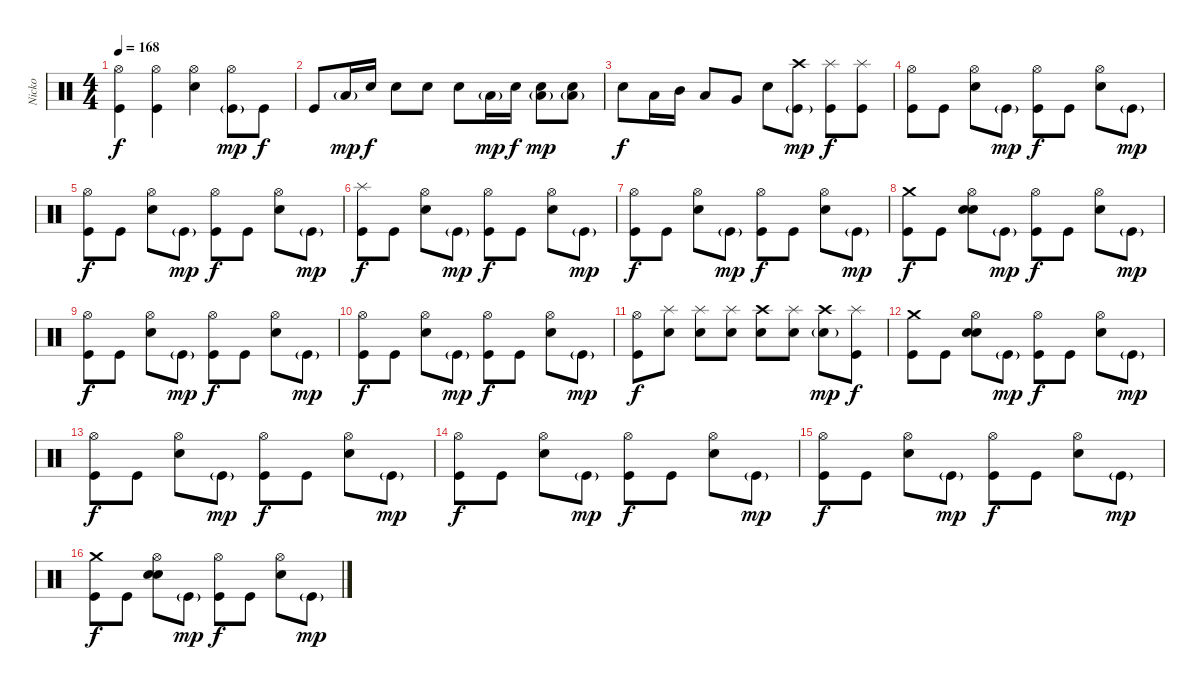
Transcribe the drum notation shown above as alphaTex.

\track ("Nicko" "Nicko") {instrument percussion}
\staff {score}
\articulation defaults
\ts (4 4)
\tempo 168
\clef neutral
\ks c
("Kick (hit)" "Hi-Hat (open)").4{dy f} ("Kick (hit)" "Hi-Hat (open)").4 ("Electric Snare (hit)" "Hi-Hat (open)").4 ("Kick (hit)"{g} "Hi-Hat (open)").8{dy mp} "Kick (hit)".8{dy f} |
"Kick (hit)".8 "Low Tom (hit)"{g}.16{dy mp} "Electric Snare (hit)".16{dy f} "Electric Snare (hit)".8 "Electric Snare (hit)".8 "Electric Snare (hit)".8 "Low Tom (hit)"{g}.16{dy mp} "Electric Snare (hit)".16{dy f} ("Low Tom (hit)"{g} "Electric Snare (hit)").8{dy mp} ("Low Tom (hit)"{g} "Electric Snare (hit)").8 |
"Electric Snare (hit)".8{dy f} "Low Tom (hit)".16 "Mid Tom (hit)".16 "Low Tom (hit)".8 "Very Low Tom (hit)".8 "Electric Snare (hit)".8 ("Kick (hit)"{g} "Crash high (hit)").8{dy mp} ("Kick (hit)" "Splash (hit)").8{dy f} ("Kick (hit)" "Splash (hit)").8 |
("Kick (hit)" "Hi-Hat (open)").8 "Kick (hit)".8 ("Electric Snare (hit)" "Hi-Hat (open)").8 "Kick (hit)"{g}.8{dy mp} ("Kick (hit)" "Hi-Hat (open)").8{dy f} "Kick (hit)".8 ("Electric Snare (hit)" "Hi-Hat (open)").8 "Kick (hit)"{g}.8{dy mp} |
("Kick (hit)" "Hi-Hat (open)").8{dy f} "Kick (hit)".8 ("Electric Snare (hit)" "Hi-Hat (open)").8 "Kick (hit)"{g}.8{dy mp} ("Kick (hit)" "Hi-Hat (open)").8{dy f} "Kick (hit)".8 ("Electric Snare (hit)" "Hi-Hat (open)").8 "Kick (hit)"{g}.8{dy mp} |
("Kick (hit)" "Splash (hit)").8{dy f} "Kick (hit)".8 ("Electric Snare (hit)" "Hi-Hat (open)").8 "Kick (hit)"{g}.8{dy mp} ("Kick (hit)" "Hi-Hat (open)").8{dy f} "Kick (hit)".8 ("Electric Snare (hit)" "Hi-Hat (open)").8 "Kick (hit)"{g}.8{dy mp} |
("Kick (hit)" "Hi-Hat (open)").8{dy f} "Kick (hit)".8 ("Electric Snare (hit)" "Hi-Hat (open)").8 "Kick (hit)"{g}.8{dy mp} ("Kick (hit)" "Hi-Hat (open)").8{dy f} "Kick (hit)".8 ("Electric Snare (hit)" "Hi-Hat (open)").8 "Kick (hit)"{g}.8{dy mp} |
("Kick (hit)" "Crash medium (hit)").8{dy f} "Kick (hit)".8 ("Electric Snare (hit)" "Hi-Hat (open)" "Snare (hit)").8 "Kick (hit)"{g}.8{dy mp} ("Kick (hit)" "Hi-Hat (open)").8{dy f} "Kick (hit)".8 ("Electric Snare (hit)" "Hi-Hat (open)").8 "Kick (hit)"{g}.8{dy mp} |
("Kick (hit)" "Hi-Hat (open)").8{dy f} "Kick (hit)".8 ("Electric Snare (hit)" "Hi-Hat (open)").8 "Kick (hit)"{g}.8{dy mp} ("Kick (hit)" "Hi-Hat (open)").8{dy f} "Kick (hit)".8 ("Electric Snare (hit)" "Hi-Hat (open)").8 "Kick (hit)"{g}.8{dy mp} |
("Kick (hit)" "Hi-Hat (open)").8{dy f} "Kick (hit)".8 ("Electric Snare (hit)" "Hi-Hat (open)").8 "Kick (hit)"{g}.8{dy mp} ("Kick (hit)" "Hi-Hat (open)").8{dy f} "Kick (hit)".8 ("Electric Snare (hit)" "Hi-Hat (open)").8 "Kick (hit)"{g}.8{dy mp} |
("Kick (hit)" "Hi-Hat (open)").8{dy f} ("Electric Snare (hit)" "Splash (hit)").8 ("Electric Snare (hit)" "Splash (hit)").8 ("Electric Snare (hit)" "Splash (hit)").8 ("Electric Snare (hit)" "Crash high (hit)").8 ("Electric Snare (hit)" "Splash (hit)").8 ("Electric Snare (hit)"{g} "Crash high (hit)").8{dy mp} ("Kick (hit)" "Splash (hit)").8{dy f} |
("Kick (hit)" "Crash medium (hit)").8 "Kick (hit)".8 ("Electric Snare (hit)" "Hi-Hat (open)" "Snare (hit)").8 "Kick (hit)"{g}.8{dy mp} ("Kick (hit)" "Hi-Hat (open)").8{dy f} "Kick (hit)".8 ("Electric Snare (hit)" "Hi-Hat (open)").8 "Kick (hit)"{g}.8{dy mp} |
("Kick (hit)" "Hi-Hat (open)").8{dy f} "Kick (hit)".8 ("Electric Snare (hit)" "Hi-Hat (open)").8 "Kick (hit)"{g}.8{dy mp} ("Kick (hit)" "Hi-Hat (open)").8{dy f} "Kick (hit)".8 ("Electric Snare (hit)" "Hi-Hat (open)").8 "Kick (hit)"{g}.8{dy mp} |
("Kick (hit)" "Hi-Hat (open)").8{dy f} "Kick (hit)".8 ("Electric Snare (hit)" "Hi-Hat (open)").8 "Kick (hit)"{g}.8{dy mp} ("Kick (hit)" "Hi-Hat (open)").8{dy f} "Kick (hit)".8 ("Electric Snare (hit)" "Hi-Hat (open)").8 "Kick (hit)"{g}.8{dy mp} |
("Kick (hit)" "Hi-Hat (open)").8{dy f} "Kick (hit)".8 ("Electric Snare (hit)" "Hi-Hat (open)").8 "Kick (hit)"{g}.8{dy mp} ("Kick (hit)" "Hi-Hat (open)").8{dy f} "Kick (hit)".8 ("Electric Snare (hit)" "Hi-Hat (open)").8 "Kick (hit)"{g}.8{dy mp} |
("Kick (hit)" "Crash medium (hit)").8{dy f} "Kick (hit)".8 ("Electric Snare (hit)" "Hi-Hat (open)" "Snare (hit)").8 "Kick (hit)"{g}.8{dy mp} ("Kick (hit)" "Hi-Hat (open)").8{dy f} "Kick (hit)".8 ("Electric Snare (hit)" "Hi-Hat (open)").8 "Kick (hit)"{g}.8{dy mp}
